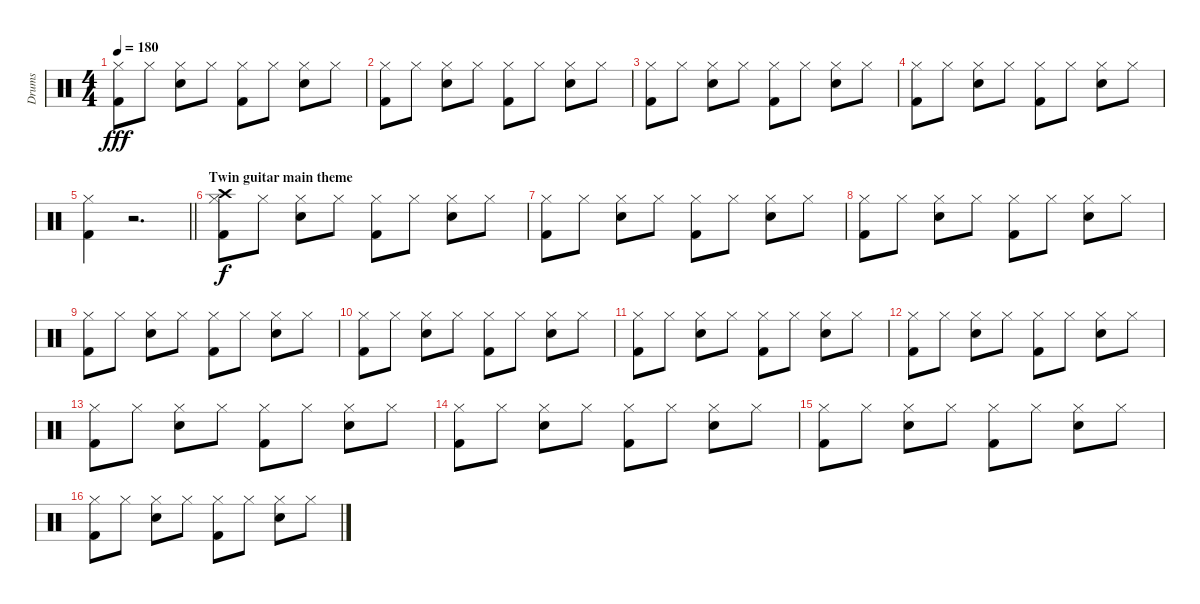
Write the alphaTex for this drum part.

\track ("Drums" "Drums") {instrument percussion}
\staff {score}
\articulation defaults
\ts (4 4)
\tempo 180
\clef neutral
\ks c
("Hi-Hat (closed)" "Kick (hit) 2").8{dy fff} "Hi-Hat (closed)".8 ("Hi-Hat (closed)" "Snare (hit) 2").8 "Hi-Hat (closed)".8 ("Hi-Hat (closed)" "Kick (hit) 2").8 "Hi-Hat (closed)".8 ("Hi-Hat (closed)" "Snare (hit) 2").8 "Hi-Hat (closed)".8 |
("Hi-Hat (closed)" "Kick (hit) 2").8 "Hi-Hat (closed)".8 ("Hi-Hat (closed)" "Snare (hit) 2").8 "Hi-Hat (closed)".8 ("Hi-Hat (closed)" "Kick (hit) 2").8 "Hi-Hat (closed)".8 ("Hi-Hat (closed)" "Snare (hit) 2").8 "Hi-Hat (closed)".8 |
("Hi-Hat (closed)" "Kick (hit) 2").8 "Hi-Hat (closed)".8 ("Hi-Hat (closed)" "Snare (hit) 2").8 "Hi-Hat (closed)".8 ("Hi-Hat (closed)" "Kick (hit) 2").8 "Hi-Hat (closed)".8 ("Hi-Hat (closed)" "Snare (hit) 2").8 "Hi-Hat (closed)".8 |
("Hi-Hat (closed)" "Kick (hit) 2").8 "Hi-Hat (closed)".8 ("Hi-Hat (closed)" "Snare (hit) 2").8 "Hi-Hat (closed)".8 ("Hi-Hat (closed)" "Kick (hit) 2").8 "Hi-Hat (closed)".8 ("Hi-Hat (closed)" "Snare (hit) 2").8 "Hi-Hat (closed)".8 |
\barLineRight lightlight
("Hi-Hat (closed)" "Kick (hit) 2").4 r.2{d} |
\section ("" "Twin guitar main theme")
("Crash high (hit)" "Hi-Hat (closed)" "Kick (hit) 2").8{dy f} "Hi-Hat (closed)".8 ("Hi-Hat (closed)" "Snare (hit) 2").8 "Hi-Hat (closed)".8 ("Hi-Hat (closed)" "Kick (hit) 2").8 "Hi-Hat (closed)".8 ("Hi-Hat (closed)" "Snare (hit) 2").8 "Hi-Hat (closed)".8 |
("Hi-Hat (closed)" "Kick (hit) 2").8 "Hi-Hat (closed)".8 ("Hi-Hat (closed)" "Snare (hit) 2").8 "Hi-Hat (closed)".8 ("Hi-Hat (closed)" "Kick (hit) 2").8 "Hi-Hat (closed)".8 ("Hi-Hat (closed)" "Snare (hit) 2").8 "Hi-Hat (closed)".8 |
("Hi-Hat (closed)" "Kick (hit) 2").8 "Hi-Hat (closed)".8 ("Hi-Hat (closed)" "Snare (hit) 2").8 "Hi-Hat (closed)".8 ("Hi-Hat (closed)" "Kick (hit) 2").8 "Hi-Hat (closed)".8 ("Hi-Hat (closed)" "Snare (hit) 2").8 "Hi-Hat (closed)".8 |
("Hi-Hat (closed)" "Kick (hit) 2").8 "Hi-Hat (closed)".8 ("Hi-Hat (closed)" "Snare (hit) 2").8 "Hi-Hat (closed)".8 ("Hi-Hat (closed)" "Kick (hit) 2").8 "Hi-Hat (closed)".8 ("Hi-Hat (closed)" "Snare (hit) 2").8 "Hi-Hat (closed)".8 |
("Hi-Hat (closed)" "Kick (hit) 2").8 "Hi-Hat (closed)".8 ("Hi-Hat (closed)" "Snare (hit) 2").8 "Hi-Hat (closed)".8 ("Hi-Hat (closed)" "Kick (hit) 2").8 "Hi-Hat (closed)".8 ("Hi-Hat (closed)" "Snare (hit) 2").8 "Hi-Hat (closed)".8 |
("Hi-Hat (closed)" "Kick (hit) 2").8 "Hi-Hat (closed)".8 ("Hi-Hat (closed)" "Snare (hit) 2").8 "Hi-Hat (closed)".8 ("Hi-Hat (closed)" "Kick (hit) 2").8 "Hi-Hat (closed)".8 ("Hi-Hat (closed)" "Snare (hit) 2").8 "Hi-Hat (closed)".8 |
("Hi-Hat (closed)" "Kick (hit) 2").8 "Hi-Hat (closed)".8 ("Hi-Hat (closed)" "Snare (hit) 2").8 "Hi-Hat (closed)".8 ("Hi-Hat (closed)" "Kick (hit) 2").8 "Hi-Hat (closed)".8 ("Hi-Hat (closed)" "Snare (hit) 2").8 "Hi-Hat (closed)".8 |
("Hi-Hat (closed)" "Kick (hit) 2").8 "Hi-Hat (closed)".8 ("Hi-Hat (closed)" "Snare (hit) 2").8 "Hi-Hat (closed)".8 ("Hi-Hat (closed)" "Kick (hit) 2").8 "Hi-Hat (closed)".8 ("Hi-Hat (closed)" "Snare (hit) 2").8 "Hi-Hat (closed)".8 |
("Hi-Hat (closed)" "Kick (hit) 2").8 "Hi-Hat (closed)".8 ("Hi-Hat (closed)" "Snare (hit) 2").8 "Hi-Hat (closed)".8 ("Hi-Hat (closed)" "Kick (hit) 2").8 "Hi-Hat (closed)".8 ("Hi-Hat (closed)" "Snare (hit) 2").8 "Hi-Hat (closed)".8 |
("Hi-Hat (closed)" "Kick (hit) 2").8 "Hi-Hat (closed)".8 ("Hi-Hat (closed)" "Snare (hit) 2").8 "Hi-Hat (closed)".8 ("Hi-Hat (closed)" "Kick (hit) 2").8 "Hi-Hat (closed)".8 ("Hi-Hat (closed)" "Snare (hit) 2").8 "Hi-Hat (closed)".8 |
("Hi-Hat (closed)" "Kick (hit) 2").8 "Hi-Hat (closed)".8 ("Hi-Hat (closed)" "Snare (hit) 2").8 "Hi-Hat (closed)".8 ("Hi-Hat (closed)" "Kick (hit) 2").8 "Hi-Hat (closed)".8 ("Hi-Hat (closed)" "Snare (hit) 2").8 "Hi-Hat (closed)".8
